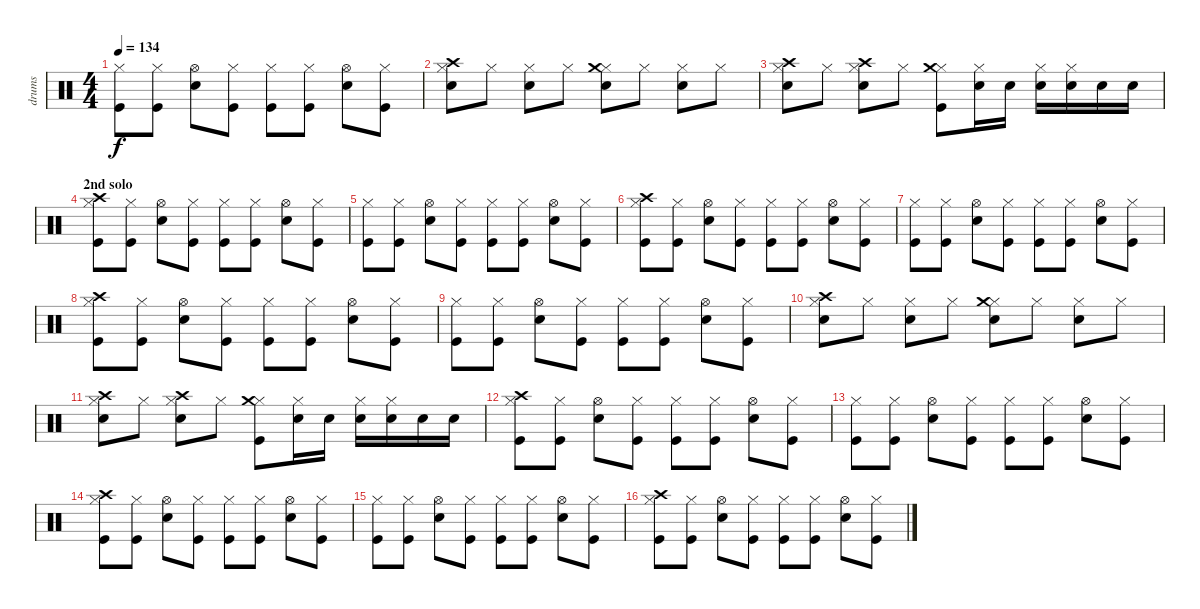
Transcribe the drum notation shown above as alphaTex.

\track ("drums" "drums") {instrument percussion}
\staff {score}
\articulation defaults
\ts (4 4)
\tempo 134
\clef neutral
\ks c
("Kick (hit)" "Hi-Hat (closed)").8{dy f} ("Kick (hit)" "Hi-Hat (closed)").8 ("Electric Snare (hit)" "Hi-Hat (open)").8 ("Kick (hit)" "Hi-Hat (closed)").8 ("Kick (hit)" "Hi-Hat (closed)").8 ("Kick (hit)" "Hi-Hat (closed)").8 ("Electric Snare (hit)" "Hi-Hat (open)").8 ("Kick (hit)" "Hi-Hat (closed)").8 |
("Electric Snare (hit)" "Hi-Hat (closed)" "Crash high (hit)").8 "Hi-Hat (closed)".8 ("Electric Snare (hit)" "Hi-Hat (closed)").8 "Hi-Hat (closed)".8 ("Electric Snare (hit)" "Hi-Hat (closed)" "Crash medium (hit)").8 "Hi-Hat (closed)".8 ("Electric Snare (hit)" "Hi-Hat (closed)").8 "Hi-Hat (closed)".8 |
("Electric Snare (hit)" "Hi-Hat (closed)" "Crash high (hit)").8 "Hi-Hat (closed)".8 ("Electric Snare (hit)" "Hi-Hat (closed)" "Crash high (hit)").8 "Hi-Hat (closed)".8 ("Kick (hit)" "Hi-Hat (closed)" "Crash medium (hit)").8 ("Electric Snare (hit)" "Hi-Hat (closed)").16 "Electric Snare (hit)".16 ("Electric Snare (hit)" "Hi-Hat (closed)").16 ("Electric Snare (hit)" "Hi-Hat (closed)").16 "Electric Snare (hit)".16 "Electric Snare (hit)".16 |
\section ("" "2nd solo")
("Kick (hit)" "Hi-Hat (closed)" "Crash high (hit)").8 ("Kick (hit)" "Hi-Hat (closed)").8 ("Electric Snare (hit)" "Hi-Hat (open)").8 ("Kick (hit)" "Hi-Hat (closed)").8 ("Kick (hit)" "Hi-Hat (closed)").8 ("Kick (hit)" "Hi-Hat (closed)").8 ("Electric Snare (hit)" "Hi-Hat (open)").8 ("Kick (hit)" "Hi-Hat (closed)").8 |
("Kick (hit)" "Hi-Hat (closed)").8 ("Kick (hit)" "Hi-Hat (closed)").8 ("Electric Snare (hit)" "Hi-Hat (open)").8 ("Kick (hit)" "Hi-Hat (closed)").8 ("Kick (hit)" "Hi-Hat (closed)").8 ("Kick (hit)" "Hi-Hat (closed)").8 ("Electric Snare (hit)" "Hi-Hat (open)").8 ("Kick (hit)" "Hi-Hat (closed)").8 |
("Kick (hit)" "Hi-Hat (closed)" "Crash high (hit)").8 ("Kick (hit)" "Hi-Hat (closed)").8 ("Electric Snare (hit)" "Hi-Hat (open)").8 ("Kick (hit)" "Hi-Hat (closed)").8 ("Kick (hit)" "Hi-Hat (closed)").8 ("Kick (hit)" "Hi-Hat (closed)").8 ("Electric Snare (hit)" "Hi-Hat (open)").8 ("Kick (hit)" "Hi-Hat (closed)").8 |
("Kick (hit)" "Hi-Hat (closed)").8 ("Kick (hit)" "Hi-Hat (closed)").8 ("Electric Snare (hit)" "Hi-Hat (open)").8 ("Kick (hit)" "Hi-Hat (closed)").8 ("Kick (hit)" "Hi-Hat (closed)").8 ("Kick (hit)" "Hi-Hat (closed)").8 ("Electric Snare (hit)" "Hi-Hat (open)").8 ("Kick (hit)" "Hi-Hat (closed)").8 |
("Kick (hit)" "Hi-Hat (closed)" "Crash high (hit)").8 ("Kick (hit)" "Hi-Hat (closed)").8 ("Electric Snare (hit)" "Hi-Hat (open)").8 ("Kick (hit)" "Hi-Hat (closed)").8 ("Kick (hit)" "Hi-Hat (closed)").8 ("Kick (hit)" "Hi-Hat (closed)").8 ("Electric Snare (hit)" "Hi-Hat (open)").8 ("Kick (hit)" "Hi-Hat (closed)").8 |
("Kick (hit)" "Hi-Hat (closed)").8 ("Kick (hit)" "Hi-Hat (closed)").8 ("Electric Snare (hit)" "Hi-Hat (open)").8 ("Kick (hit)" "Hi-Hat (closed)").8 ("Kick (hit)" "Hi-Hat (closed)").8 ("Kick (hit)" "Hi-Hat (closed)").8 ("Electric Snare (hit)" "Hi-Hat (open)").8 ("Kick (hit)" "Hi-Hat (closed)").8 |
("Electric Snare (hit)" "Hi-Hat (closed)" "Crash high (hit)").8 "Hi-Hat (closed)".8 ("Electric Snare (hit)" "Hi-Hat (closed)").8 "Hi-Hat (closed)".8 ("Electric Snare (hit)" "Hi-Hat (closed)" "Crash medium (hit)").8 "Hi-Hat (closed)".8 ("Electric Snare (hit)" "Hi-Hat (closed)").8 "Hi-Hat (closed)".8 |
("Electric Snare (hit)" "Hi-Hat (closed)" "Crash high (hit)").8 "Hi-Hat (closed)".8 ("Electric Snare (hit)" "Hi-Hat (closed)" "Crash high (hit)").8 "Hi-Hat (closed)".8 ("Kick (hit)" "Hi-Hat (closed)" "Crash medium (hit)").8 ("Electric Snare (hit)" "Hi-Hat (closed)").16 "Electric Snare (hit)".16 ("Electric Snare (hit)" "Hi-Hat (closed)").16 ("Electric Snare (hit)" "Hi-Hat (closed)").16 "Electric Snare (hit)".16 "Electric Snare (hit)".16 |
("Kick (hit)" "Hi-Hat (closed)" "Crash high (hit)").8 ("Kick (hit)" "Hi-Hat (closed)").8 ("Electric Snare (hit)" "Hi-Hat (open)").8 ("Kick (hit)" "Hi-Hat (closed)").8 ("Kick (hit)" "Hi-Hat (closed)").8 ("Kick (hit)" "Hi-Hat (closed)").8 ("Electric Snare (hit)" "Hi-Hat (open)").8 ("Kick (hit)" "Hi-Hat (closed)").8 |
("Kick (hit)" "Hi-Hat (closed)").8 ("Kick (hit)" "Hi-Hat (closed)").8 ("Electric Snare (hit)" "Hi-Hat (open)").8 ("Kick (hit)" "Hi-Hat (closed)").8 ("Kick (hit)" "Hi-Hat (closed)").8 ("Kick (hit)" "Hi-Hat (closed)").8 ("Electric Snare (hit)" "Hi-Hat (open)").8 ("Kick (hit)" "Hi-Hat (closed)").8 |
("Kick (hit)" "Hi-Hat (closed)" "Crash high (hit)").8 ("Kick (hit)" "Hi-Hat (closed)").8 ("Electric Snare (hit)" "Hi-Hat (open)").8 ("Kick (hit)" "Hi-Hat (closed)").8 ("Kick (hit)" "Hi-Hat (closed)").8 ("Kick (hit)" "Hi-Hat (closed)").8 ("Electric Snare (hit)" "Hi-Hat (open)").8 ("Kick (hit)" "Hi-Hat (closed)").8 |
("Kick (hit)" "Hi-Hat (closed)").8 ("Kick (hit)" "Hi-Hat (closed)").8 ("Electric Snare (hit)" "Hi-Hat (open)").8 ("Kick (hit)" "Hi-Hat (closed)").8 ("Kick (hit)" "Hi-Hat (closed)").8 ("Kick (hit)" "Hi-Hat (closed)").8 ("Electric Snare (hit)" "Hi-Hat (open)").8 ("Kick (hit)" "Hi-Hat (closed)").8 |
("Kick (hit)" "Hi-Hat (closed)" "Crash high (hit)").8 ("Kick (hit)" "Hi-Hat (closed)").8 ("Electric Snare (hit)" "Hi-Hat (open)").8 ("Kick (hit)" "Hi-Hat (closed)").8 ("Kick (hit)" "Hi-Hat (closed)").8 ("Kick (hit)" "Hi-Hat (closed)").8 ("Electric Snare (hit)" "Hi-Hat (open)").8 ("Kick (hit)" "Hi-Hat (closed)").8
